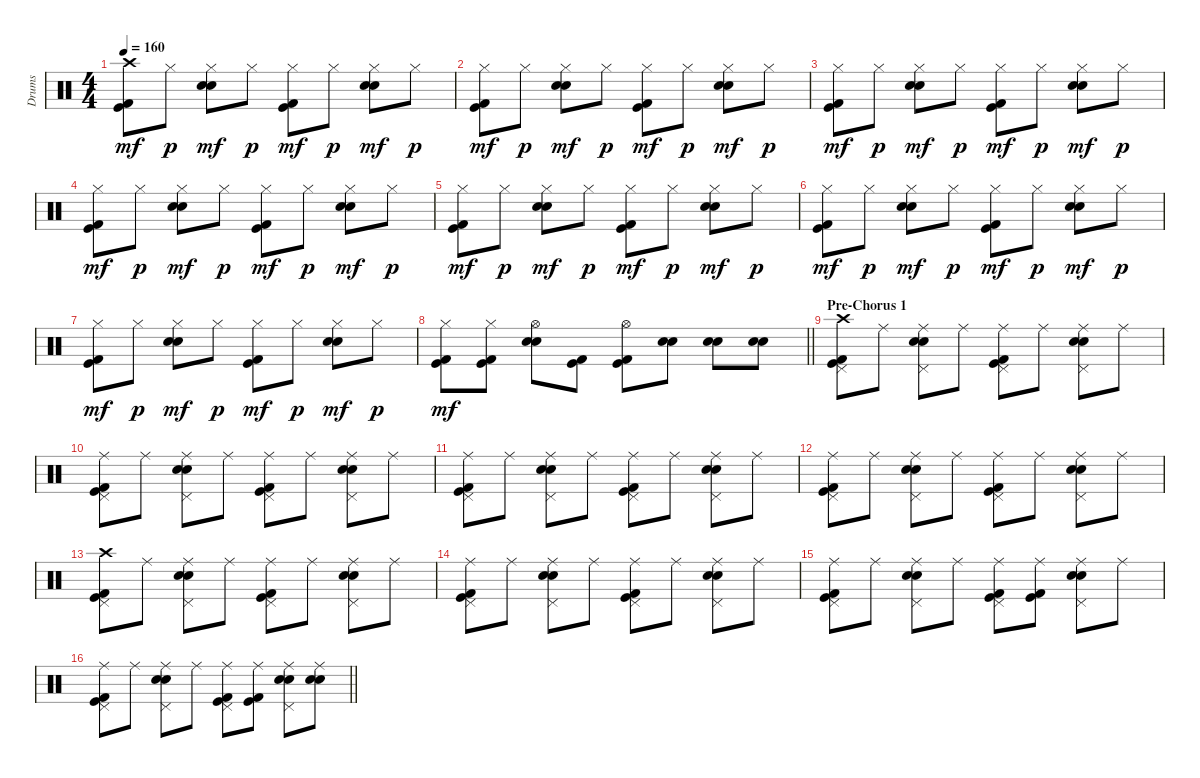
\track ("Drums" "Drums") {instrument percussion}
\staff {score}
\articulation defaults
\ts (4 4)
\tempo 160
\clef neutral
\ks c
("Crash high (hit)" "Kick (hit) 2" "Kick (hit)").8{dy mf} "Hi-Hat (closed)".8{dy p} ("Hi-Hat (closed)" "Snare (hit) 2" "Electric Snare (hit)").8{dy mf} "Hi-Hat (closed)".8{dy p} ("Hi-Hat (closed)" "Kick (hit) 2" "Kick (hit)").8{dy mf} "Hi-Hat (closed)".8{dy p} ("Hi-Hat (closed)" "Snare (hit) 2" "Electric Snare (hit)").8{dy mf} "Hi-Hat (closed)".8{dy p} |
("Hi-Hat (closed)" "Kick (hit) 2" "Kick (hit)").8{dy mf} "Hi-Hat (closed)".8{dy p} ("Hi-Hat (closed)" "Snare (hit) 2" "Electric Snare (hit)").8{dy mf} "Hi-Hat (closed)".8{dy p} ("Hi-Hat (closed)" "Kick (hit) 2" "Kick (hit)").8{dy mf} "Hi-Hat (closed)".8{dy p} ("Hi-Hat (closed)" "Snare (hit) 2" "Electric Snare (hit)").8{dy mf} "Hi-Hat (closed)".8{dy p} |
("Hi-Hat (closed)" "Kick (hit) 2" "Kick (hit)").8{dy mf} "Hi-Hat (closed)".8{dy p} ("Hi-Hat (closed)" "Snare (hit) 2" "Electric Snare (hit)").8{dy mf} "Hi-Hat (closed)".8{dy p} ("Hi-Hat (closed)" "Kick (hit) 2" "Kick (hit)").8{dy mf} "Hi-Hat (closed)".8{dy p} ("Hi-Hat (closed)" "Snare (hit) 2" "Electric Snare (hit)").8{dy mf} "Hi-Hat (closed)".8{dy p} |
("Hi-Hat (closed)" "Kick (hit) 2" "Kick (hit)").8{dy mf} "Hi-Hat (closed)".8{dy p} ("Hi-Hat (closed)" "Snare (hit) 2" "Electric Snare (hit)").8{dy mf} "Hi-Hat (closed)".8{dy p} ("Hi-Hat (closed)" "Kick (hit) 2" "Kick (hit)").8{dy mf} "Hi-Hat (closed)".8{dy p} ("Hi-Hat (closed)" "Snare (hit) 2" "Electric Snare (hit)").8{dy mf} "Hi-Hat (closed)".8{dy p} |
("Hi-Hat (closed)" "Kick (hit) 2" "Kick (hit)").8{dy mf} "Hi-Hat (closed)".8{dy p} ("Hi-Hat (closed)" "Snare (hit) 2" "Electric Snare (hit)").8{dy mf} "Hi-Hat (closed)".8{dy p} ("Hi-Hat (closed)" "Kick (hit) 2" "Kick (hit)").8{dy mf} "Hi-Hat (closed)".8{dy p} ("Hi-Hat (closed)" "Snare (hit) 2" "Electric Snare (hit)").8{dy mf} "Hi-Hat (closed)".8{dy p} |
("Hi-Hat (closed)" "Kick (hit) 2" "Kick (hit)").8{dy mf} "Hi-Hat (closed)".8{dy p} ("Hi-Hat (closed)" "Snare (hit) 2" "Electric Snare (hit)").8{dy mf} "Hi-Hat (closed)".8{dy p} ("Hi-Hat (closed)" "Kick (hit) 2" "Kick (hit)").8{dy mf} "Hi-Hat (closed)".8{dy p} ("Hi-Hat (closed)" "Snare (hit) 2" "Electric Snare (hit)").8{dy mf} "Hi-Hat (closed)".8{dy p} |
("Hi-Hat (closed)" "Kick (hit) 2" "Kick (hit)").8{dy mf} "Hi-Hat (closed)".8{dy p} ("Hi-Hat (closed)" "Snare (hit) 2" "Electric Snare (hit)").8{dy mf} "Hi-Hat (closed)".8{dy p} ("Hi-Hat (closed)" "Kick (hit) 2" "Kick (hit)").8{dy mf} "Hi-Hat (closed)".8{dy p} ("Hi-Hat (closed)" "Snare (hit) 2" "Electric Snare (hit)").8{dy mf} "Hi-Hat (closed)".8{dy p} |
\barLineRight lightlight
("Hi-Hat (closed)" "Kick (hit) 2" "Kick (hit)").8{dy mf} ("Hi-Hat (closed)" "Kick (hit) 2" "Kick (hit)").8 ("Hi-Hat (open)" "Snare (hit) 2" "Electric Snare (hit)").8 ("Kick (hit) 2" "Kick (hit)").8 ("Hi-Hat (open)" "Kick (hit) 2" "Kick (hit)").8 ("Snare (hit) 2" "Electric Snare (hit)").8 ("Snare (hit) 2" "Electric Snare (hit)").8 ("Snare (hit) 2" "Electric Snare (hit)").8 |
\section ("" "Pre-Chorus 1")
("Crash high (hit)" "Pedal Hi-Hat (hit)" "Kick (hit) 2" "Kick (hit)").8 "Ride (middle)".8 ("Ride (middle)" "Pedal Hi-Hat (hit)" "Snare (hit) 2" "Electric Snare (hit)").8 "Ride (middle)".8 ("Ride (middle)" "Pedal Hi-Hat (hit)" "Kick (hit) 2" "Kick (hit)").8 "Ride (middle)".8 ("Ride (middle)" "Pedal Hi-Hat (hit)" "Snare (hit) 2" "Electric Snare (hit)").8 "Ride (middle)".8 |
("Ride (middle)" "Pedal Hi-Hat (hit)" "Kick (hit) 2" "Kick (hit)").8 "Ride (middle)".8 ("Ride (middle)" "Pedal Hi-Hat (hit)" "Snare (hit) 2" "Electric Snare (hit)").8 "Ride (middle)".8 ("Ride (middle)" "Pedal Hi-Hat (hit)" "Kick (hit) 2" "Kick (hit)").8 "Ride (middle)".8 ("Ride (middle)" "Pedal Hi-Hat (hit)" "Snare (hit) 2" "Electric Snare (hit)").8 "Ride (middle)".8 |
("Ride (middle)" "Pedal Hi-Hat (hit)" "Kick (hit) 2" "Kick (hit)").8 "Ride (middle)".8 ("Ride (middle)" "Pedal Hi-Hat (hit)" "Snare (hit) 2" "Electric Snare (hit)").8 "Ride (middle)".8 ("Ride (middle)" "Pedal Hi-Hat (hit)" "Kick (hit) 2" "Kick (hit)").8 "Ride (middle)".8 ("Ride (middle)" "Pedal Hi-Hat (hit)" "Snare (hit) 2" "Electric Snare (hit)").8 "Ride (middle)".8 |
("Ride (middle)" "Pedal Hi-Hat (hit)" "Kick (hit) 2" "Kick (hit)").8 "Ride (middle)".8 ("Ride (middle)" "Pedal Hi-Hat (hit)" "Snare (hit) 2" "Electric Snare (hit)").8 "Ride (middle)".8 ("Ride (middle)" "Pedal Hi-Hat (hit)" "Kick (hit) 2" "Kick (hit)").8 "Ride (middle)".8 ("Ride (middle)" "Pedal Hi-Hat (hit)" "Snare (hit) 2" "Electric Snare (hit)").8 "Ride (middle)".8 |
("Crash high (hit)" "Pedal Hi-Hat (hit)" "Kick (hit) 2" "Kick (hit)").8 "Ride (middle)".8 ("Ride (middle)" "Pedal Hi-Hat (hit)" "Snare (hit) 2" "Electric Snare (hit)").8 "Ride (middle)".8 ("Ride (middle)" "Pedal Hi-Hat (hit)" "Kick (hit) 2" "Kick (hit)").8 "Ride (middle)".8 ("Ride (middle)" "Pedal Hi-Hat (hit)" "Snare (hit) 2" "Electric Snare (hit)").8 "Ride (middle)".8 |
("Ride (middle)" "Pedal Hi-Hat (hit)" "Kick (hit) 2" "Kick (hit)").8 "Ride (middle)".8 ("Ride (middle)" "Pedal Hi-Hat (hit)" "Snare (hit) 2" "Electric Snare (hit)").8 "Ride (middle)".8 ("Ride (middle)" "Pedal Hi-Hat (hit)" "Kick (hit) 2" "Kick (hit)").8 "Ride (middle)".8 ("Ride (middle)" "Pedal Hi-Hat (hit)" "Snare (hit) 2" "Electric Snare (hit)").8 "Ride (middle)".8 |
("Ride (middle)" "Pedal Hi-Hat (hit)" "Kick (hit) 2" "Kick (hit)").8 "Ride (middle)".8 ("Ride (middle)" "Pedal Hi-Hat (hit)" "Snare (hit) 2" "Electric Snare (hit)").8 "Ride (middle)".8 ("Ride (middle)" "Pedal Hi-Hat (hit)" "Kick (hit) 2" "Kick (hit)").8 ("Ride (middle)" "Kick (hit) 2" "Kick (hit)").8 ("Ride (middle)" "Pedal Hi-Hat (hit)" "Snare (hit) 2" "Electric Snare (hit)").8 "Ride (middle)".8 |
\barLineRight lightlight
("Ride (middle)" "Pedal Hi-Hat (hit)" "Kick (hit) 2" "Kick (hit)").8 "Ride (middle)".8 ("Ride (middle)" "Pedal Hi-Hat (hit)" "Snare (hit) 2" "Electric Snare (hit)").8 "Ride (middle)".8 ("Ride (middle)" "Pedal Hi-Hat (hit)" "Kick (hit) 2" "Kick (hit)").8 ("Ride (middle)" "Kick (hit) 2" "Kick (hit)").8 ("Ride (middle)" "Pedal Hi-Hat (hit)" "Snare (hit) 2" "Electric Snare (hit)").8 ("Ride (middle)" "Snare (hit) 2" "Electric Snare (hit)").8
